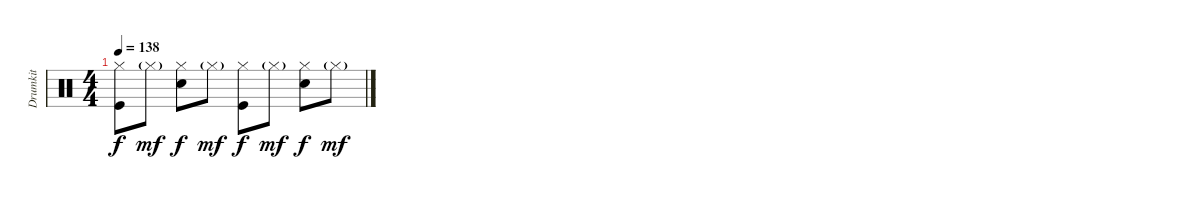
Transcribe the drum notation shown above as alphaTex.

\track ("Drumkit" "Drumkit") {instrument percussion}
\staff {score}
\articulation defaults
\ts (4 4)
\tempo 138
\clef neutral
\ks c
("Hi-Hat (closed)" "Kick (hit)").8{dy f} "Hi-Hat (closed)"{g}.8{dy mf} ("Hi-Hat (closed)" "Snare (hit) 2").8{dy f} "Hi-Hat (closed)"{g}.8{dy mf} ("Hi-Hat (closed)" "Kick (hit)").8{dy f} "Hi-Hat (closed)"{g}.8{dy mf} ("Hi-Hat (closed)" "Snare (hit) 2").8{dy f} "Hi-Hat (closed)"{g}.8{dy mf}
